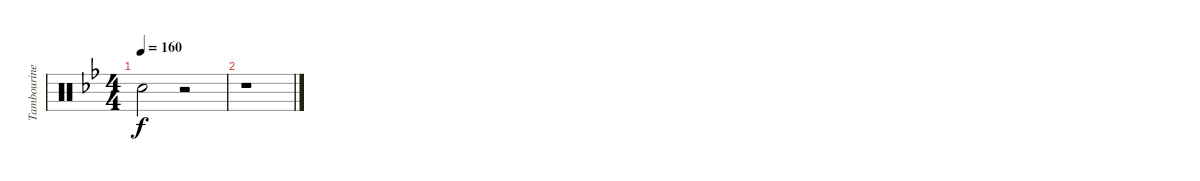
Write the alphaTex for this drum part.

\track ("Tambourine" "Tambourine") {instrument percussion}
\staff {score}
\articulation defaults
\ts (4 4)
\tempo 160
\clef neutral
\ks bb "Snare (hit)"{t}.2{dy f}
r.2 |
r.1
